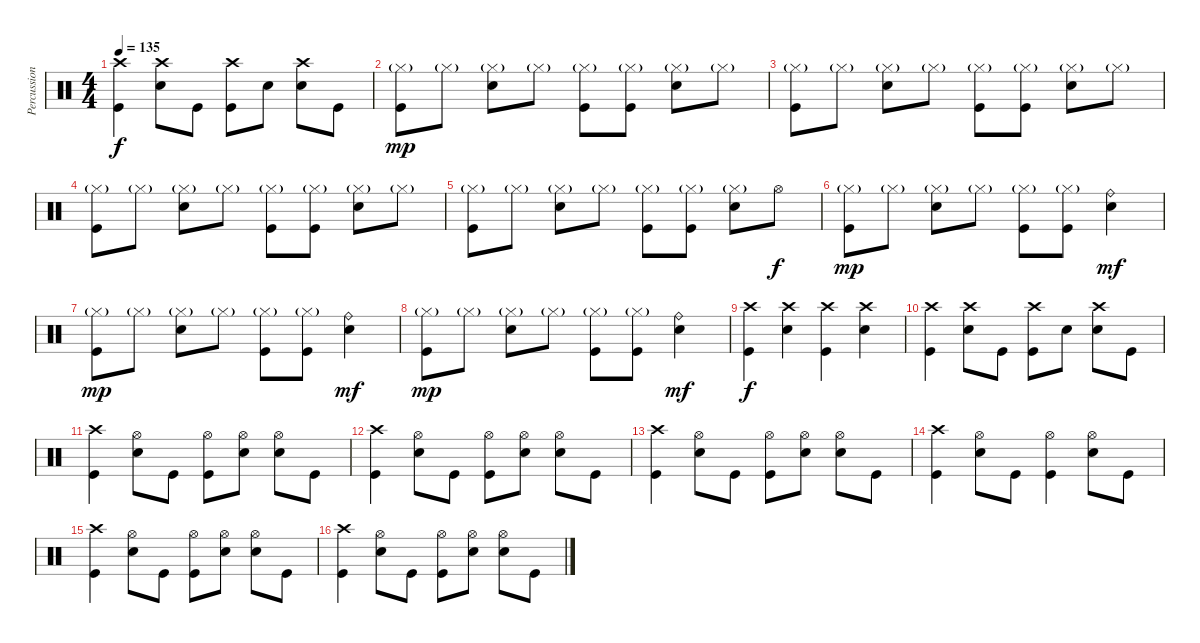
\track ("Percussion" "Percussion") {instrument percussion}
\staff {score}
\articulation defaults
\ts (4 4)
\tempo 135
\clef neutral
\ks c
("Crash high (hit)" "Kick (hit)").4{dy f} ("Crash high (hit)" "Electric Snare (hit)").8 "Kick (hit)".8 ("Crash high (hit)" "Kick (hit)").8 "Electric Snare (hit)".8 ("Crash high (hit)" "Electric Snare (hit)").8 "Kick (hit)".8 |
("Hi-Hat (closed)"{g} "Kick (hit)").8{dy mp} "Hi-Hat (closed)"{g}.8 ("Hi-Hat (closed)"{g} "Electric Snare (hit)").8 "Hi-Hat (closed)"{g}.8 ("Hi-Hat (closed)"{g} "Kick (hit)").8 ("Hi-Hat (closed)"{g} "Kick (hit)").8 ("Hi-Hat (closed)"{g} "Electric Snare (hit)").8 "Hi-Hat (closed)"{g}.8 |
("Hi-Hat (closed)"{g} "Kick (hit)").8 "Hi-Hat (closed)"{g}.8 ("Hi-Hat (closed)"{g} "Electric Snare (hit)").8 "Hi-Hat (closed)"{g}.8 ("Hi-Hat (closed)"{g} "Kick (hit)").8 ("Hi-Hat (closed)"{g} "Kick (hit)").8 ("Hi-Hat (closed)"{g} "Electric Snare (hit)").8 "Hi-Hat (closed)"{g}.8 |
("Hi-Hat (closed)"{g} "Kick (hit)").8 "Hi-Hat (closed)"{g}.8 ("Hi-Hat (closed)"{g} "Electric Snare (hit)").8 "Hi-Hat (closed)"{g}.8 ("Hi-Hat (closed)"{g} "Kick (hit)").8 ("Hi-Hat (closed)"{g} "Kick (hit)").8 ("Hi-Hat (closed)"{g} "Electric Snare (hit)").8 "Hi-Hat (closed)"{g}.8 |
("Hi-Hat (closed)"{g} "Kick (hit)").8 "Hi-Hat (closed)"{g}.8 ("Hi-Hat (closed)"{g} "Electric Snare (hit)").8 "Hi-Hat (closed)"{g}.8 ("Hi-Hat (closed)"{g} "Kick (hit)").8 ("Hi-Hat (closed)"{g} "Kick (hit)").8 ("Hi-Hat (closed)"{g} "Electric Snare (hit)").8 "Hi-Hat (open)".8{dy f} |
("Hi-Hat (closed)"{g} "Kick (hit)").8{dy mp} "Hi-Hat (closed)"{g}.8 ("Hi-Hat (closed)"{g} "Electric Snare (hit)").8 "Hi-Hat (closed)"{g}.8 ("Hi-Hat (closed)"{g} "Kick (hit)").8 ("Hi-Hat (closed)"{g} "Kick (hit)").8 ("Ride (bell)" "Electric Snare (hit)").4{dy mf} |
("Hi-Hat (closed)"{g} "Kick (hit)").8{dy mp} "Hi-Hat (closed)"{g}.8 ("Hi-Hat (closed)"{g} "Electric Snare (hit)").8 "Hi-Hat (closed)"{g}.8 ("Hi-Hat (closed)"{g} "Kick (hit)").8 ("Hi-Hat (closed)"{g} "Kick (hit)").8 ("Ride (bell)" "Electric Snare (hit)").4{dy mf} |
("Hi-Hat (closed)"{g} "Kick (hit)").8{dy mp} "Hi-Hat (closed)"{g}.8 ("Hi-Hat (closed)"{g} "Electric Snare (hit)").8 "Hi-Hat (closed)"{g}.8 ("Hi-Hat (closed)"{g} "Kick (hit)").8 ("Hi-Hat (closed)"{g} "Kick (hit)").8 ("Ride (bell)" "Electric Snare (hit)").4{dy mf} |
("Crash high (hit)" "Kick (hit)").4{dy f} ("Crash high (hit)" "Electric Snare (hit)").4 ("Crash high (hit)" "Kick (hit)").4 ("Crash high (hit)" "Electric Snare (hit)").4 |
("Crash high (hit)" "Kick (hit)").4 ("Crash high (hit)" "Electric Snare (hit)").8 "Kick (hit)".8 ("Crash high (hit)" "Kick (hit)").8 "Electric Snare (hit)".8 ("Crash high (hit)" "Electric Snare (hit)").8 "Kick (hit)".8 |
("Crash high (hit)" "Kick (hit)").4 ("Hi-Hat (open)" "Electric Snare (hit)").8 "Kick (hit)".8 ("Hi-Hat (open)" "Kick (hit)").8 ("Hi-Hat (open)" "Electric Snare (hit)").8 ("Hi-Hat (open)" "Electric Snare (hit)").8 "Kick (hit)".8 |
("Crash high (hit)" "Kick (hit)").4 ("Hi-Hat (open)" "Electric Snare (hit)").8 "Kick (hit)".8 ("Hi-Hat (open)" "Kick (hit)").8 ("Hi-Hat (open)" "Electric Snare (hit)").8 ("Hi-Hat (open)" "Electric Snare (hit)").8 "Kick (hit)".8 |
("Crash high (hit)" "Kick (hit)").4 ("Hi-Hat (open)" "Electric Snare (hit)").8 "Kick (hit)".8 ("Hi-Hat (open)" "Kick (hit)").8 ("Hi-Hat (open)" "Electric Snare (hit)").8 ("Hi-Hat (open)" "Electric Snare (hit)").8 "Kick (hit)".8 |
("Crash high (hit)" "Kick (hit)").4 ("Hi-Hat (open)" "Electric Snare (hit)").8 "Kick (hit)".8 ("Hi-Hat (open)" "Kick (hit)").4 ("Hi-Hat (open)" "Electric Snare (hit)").8 "Kick (hit)".8 |
("Crash high (hit)" "Kick (hit)").4 ("Hi-Hat (open)" "Electric Snare (hit)").8 "Kick (hit)".8 ("Hi-Hat (open)" "Kick (hit)").8 ("Hi-Hat (open)" "Electric Snare (hit)").8 ("Hi-Hat (open)" "Electric Snare (hit)").8 "Kick (hit)".8 |
("Crash high (hit)" "Kick (hit)").4 ("Hi-Hat (open)" "Electric Snare (hit)").8 "Kick (hit)".8 ("Hi-Hat (open)" "Kick (hit)").8 ("Hi-Hat (open)" "Electric Snare (hit)").8 ("Hi-Hat (open)" "Electric Snare (hit)").8 "Kick (hit)".8
